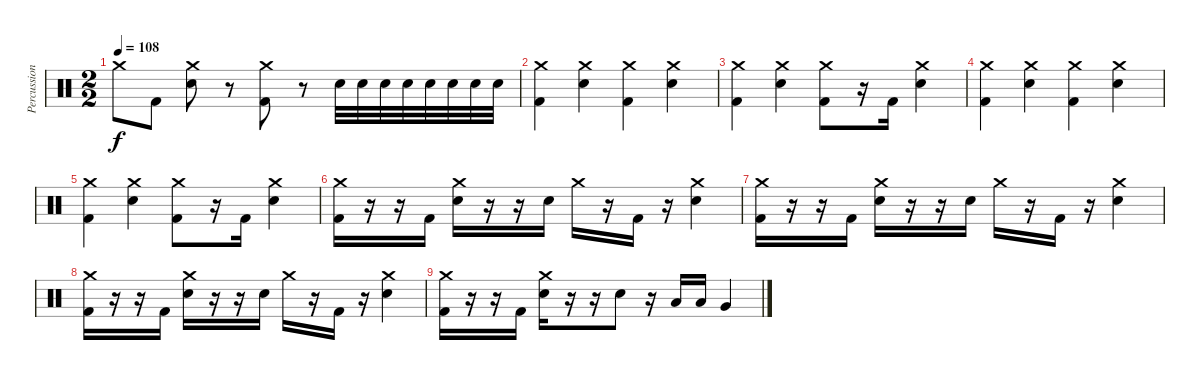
\track ("Percussion" "Percussion") {instrument percussion}
\staff {score}
\articulation defaults
\ts (2 2)
\tempo 108
\clef neutral
\ks c "Crash medium (hit)".8{dy f} "Kick (hit) 2".8
("Crash medium (hit)" "Electric Snare (hit)").8 r.8 ("Crash medium (hit)" "Kick (hit) 2").8 r.8 "Electric Snare (hit)".32 "Electric Snare (hit)".32 "Electric Snare (hit)".32 "Electric Snare (hit)".32 "Electric Snare (hit)".32 "Electric Snare (hit)".32 "Electric Snare (hit)".32 "Electric Snare (hit)".32 |
("Crash medium (hit)" "Kick (hit) 2").4 ("Crash medium (hit)" "Electric Snare (hit)").4 ("Crash medium (hit)" "Kick (hit) 2").4 ("Crash medium (hit)" "Electric Snare (hit)").4 |
("Crash medium (hit)" "Kick (hit) 2").4 ("Crash medium (hit)" "Electric Snare (hit)").4 ("Crash medium (hit)" "Kick (hit) 2").8 r.16 "Kick (hit) 2".16 ("Crash medium (hit)" "Electric Snare (hit)").4 |
("Crash medium (hit)" "Kick (hit) 2").4 ("Crash medium (hit)" "Electric Snare (hit)").4 ("Crash medium (hit)" "Kick (hit) 2").4 ("Crash medium (hit)" "Electric Snare (hit)").4 |
("Crash medium (hit)" "Kick (hit) 2").4 ("Crash medium (hit)" "Electric Snare (hit)").4 ("Crash medium (hit)" "Kick (hit) 2").8 r.16 "Kick (hit) 2".16 ("Crash medium (hit)" "Electric Snare (hit)").4 |
("Crash medium (hit)" "Kick (hit) 2").16 r.16 r.16 "Kick (hit) 2".16 ("Crash medium (hit)" "Electric Snare (hit)").16 r.16 r.16 "Electric Snare (hit)".16 "Crash medium (hit)".16 r.16 "Kick (hit) 2".16 r.16 ("Crash medium (hit)" "Electric Snare (hit)").4 |
("Crash medium (hit)" "Kick (hit) 2").16 r.16 r.16 "Kick (hit) 2".16 ("Crash medium (hit)" "Electric Snare (hit)").16 r.16 r.16 "Electric Snare (hit)".16 "Crash medium (hit)".16 r.16 "Kick (hit) 2".16 r.16 ("Crash medium (hit)" "Electric Snare (hit)").4 |
("Crash medium (hit)" "Kick (hit) 2").16 r.16 r.16 "Kick (hit) 2".16 ("Crash medium (hit)" "Electric Snare (hit)").16 r.16 r.16 "Electric Snare (hit)".16 "Crash medium (hit)".16 r.16 "Kick (hit) 2".16 r.16 ("Crash medium (hit)" "Electric Snare (hit)").4 |
("Crash medium (hit)" "Kick (hit) 2").16 r.16 r.16 "Kick (hit) 2".16 ("Crash medium (hit)" "Electric Snare (hit)").16 r.16 r.16 "Electric Snare (hit)".8 r.16 "Low Tom (hit)".16 "Low Tom (hit)".16 "Very Low Tom (hit)".4
